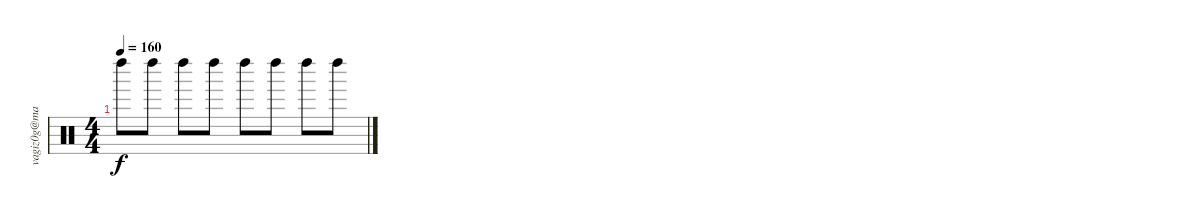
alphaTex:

\track ("vagiz0g@mail.ru" "vagiz0g@ma") {instrument percussion}
\staff {score}
\articulation defaults
\ts (4 4)
\tempo 160
\clef neutral
\ks c "Left Maraca (hit)".8{dy f} "Left Maraca (hit)".8 "Left Maraca (hit)".8 "Left Maraca (hit)".8 "Left Maraca (hit)".8 "Left Maraca (hit)".8 "Left Maraca (hit)".8 "Left Maraca (hit)".8
